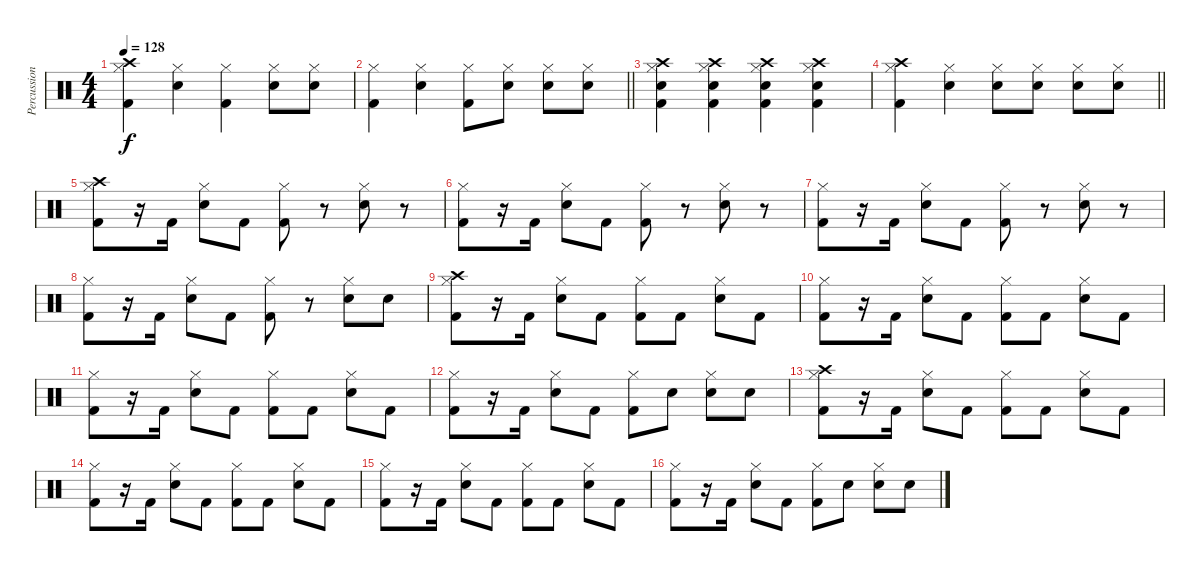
\track ("Percussion" "Percussion") {instrument percussion}
\staff {score}
\articulation defaults
\ts (4 4)
\tempo 128
\clef neutral
\ks c
("Crash high (hit)" "Hi-Hat (closed)" "Kick (hit) 2").4{dy f} ("Hi-Hat (closed)" "Snare (hit) 2").4 ("Hi-Hat (closed)" "Kick (hit) 2").4 ("Hi-Hat (closed)" "Snare (hit) 2").8 ("Hi-Hat (closed)" "Snare (hit) 2").8 |
\barLineRight lightlight
("Hi-Hat (closed)" "Kick (hit) 2").4 ("Hi-Hat (closed)" "Snare (hit) 2").4 ("Hi-Hat (closed)" "Kick (hit) 2").8 ("Hi-Hat (closed)" "Snare (hit) 2").8 ("Hi-Hat (closed)" "Snare (hit) 2").8 ("Hi-Hat (closed)" "Snare (hit) 2").8 |
("Crash high (hit)" "Hi-Hat (closed)" "Kick (hit) 2" "Snare (hit) 2").4 ("Crash high (hit)" "Hi-Hat (closed)" "Kick (hit) 2" "Snare (hit) 2").4 ("Crash high (hit)" "Hi-Hat (closed)" "Kick (hit) 2" "Snare (hit) 2").4 ("Crash high (hit)" "Hi-Hat (closed)" "Kick (hit) 2" "Snare (hit) 2").4 |
\barLineRight lightlight
("Crash high (hit)" "Hi-Hat (closed)" "Kick (hit) 2").4 ("Hi-Hat (closed)" "Snare (hit) 2").4 ("Hi-Hat (closed)" "Snare (hit) 2").8 ("Hi-Hat (closed)" "Snare (hit) 2").8 ("Hi-Hat (closed)" "Snare (hit) 2").8 ("Hi-Hat (closed)" "Snare (hit) 2").8 |
("Crash high (hit)" "Hi-Hat (closed)" "Kick (hit) 2").8 r.16 "Kick (hit) 2".16 ("Hi-Hat (closed)" "Snare (hit) 2").8 "Kick (hit) 2".8 ("Hi-Hat (closed)" "Kick (hit) 2").8 r.8 ("Hi-Hat (closed)" "Snare (hit) 2").8 r.8 |
("Hi-Hat (closed)" "Kick (hit) 2").8 r.16 "Kick (hit) 2".16 ("Hi-Hat (closed)" "Snare (hit) 2").8 "Kick (hit) 2".8 ("Hi-Hat (closed)" "Kick (hit) 2").8 r.8 ("Hi-Hat (closed)" "Snare (hit) 2").8 r.8 |
("Hi-Hat (closed)" "Kick (hit) 2").8 r.16 "Kick (hit) 2".16 ("Hi-Hat (closed)" "Snare (hit) 2").8 "Kick (hit) 2".8 ("Hi-Hat (closed)" "Kick (hit) 2").8 r.8 ("Hi-Hat (closed)" "Snare (hit) 2").8 r.8 |
("Hi-Hat (closed)" "Kick (hit) 2").8 r.16 "Kick (hit) 2".16 ("Hi-Hat (closed)" "Snare (hit) 2").8 "Kick (hit) 2".8 ("Hi-Hat (closed)" "Kick (hit) 2").8 r.8 ("Hi-Hat (closed)" "Snare (hit) 2").8 "Snare (hit) 2".8 |
("Crash high (hit)" "Hi-Hat (closed)" "Kick (hit) 2").8 r.16 "Kick (hit) 2".16 ("Hi-Hat (closed)" "Snare (hit) 2").8 "Kick (hit) 2".8 ("Hi-Hat (closed)" "Kick (hit) 2").8 "Kick (hit) 2".8 ("Hi-Hat (closed)" "Snare (hit) 2").8 "Kick (hit) 2".8 |
("Hi-Hat (closed)" "Kick (hit) 2").8 r.16 "Kick (hit) 2".16 ("Hi-Hat (closed)" "Snare (hit) 2").8 "Kick (hit) 2".8 ("Hi-Hat (closed)" "Kick (hit) 2").8 "Kick (hit) 2".8 ("Hi-Hat (closed)" "Snare (hit) 2").8 "Kick (hit) 2".8 |
("Hi-Hat (closed)" "Kick (hit) 2").8 r.16 "Kick (hit) 2".16 ("Hi-Hat (closed)" "Snare (hit) 2").8 "Kick (hit) 2".8 ("Hi-Hat (closed)" "Kick (hit) 2").8 "Kick (hit) 2".8 ("Hi-Hat (closed)" "Snare (hit) 2").8 "Kick (hit) 2".8 |
("Hi-Hat (closed)" "Kick (hit) 2").8 r.16 "Kick (hit) 2".16 ("Hi-Hat (closed)" "Snare (hit) 2").8 "Kick (hit) 2".8 ("Hi-Hat (closed)" "Kick (hit) 2").8 "Snare (hit) 2".8 ("Hi-Hat (closed)" "Snare (hit) 2").8 "Snare (hit) 2".8 |
("Crash high (hit)" "Hi-Hat (closed)" "Kick (hit) 2").8 r.16 "Kick (hit) 2".16 ("Hi-Hat (closed)" "Snare (hit) 2").8 "Kick (hit) 2".8 ("Hi-Hat (closed)" "Kick (hit) 2").8 "Kick (hit) 2".8 ("Hi-Hat (closed)" "Snare (hit) 2").8 "Kick (hit) 2".8 |
("Hi-Hat (closed)" "Kick (hit) 2").8 r.16 "Kick (hit) 2".16 ("Hi-Hat (closed)" "Snare (hit) 2").8 "Kick (hit) 2".8 ("Hi-Hat (closed)" "Kick (hit) 2").8 "Kick (hit) 2".8 ("Hi-Hat (closed)" "Snare (hit) 2").8 "Kick (hit) 2".8 |
("Hi-Hat (closed)" "Kick (hit) 2").8 r.16 "Kick (hit) 2".16 ("Hi-Hat (closed)" "Snare (hit) 2").8 "Kick (hit) 2".8 ("Hi-Hat (closed)" "Kick (hit) 2").8 "Kick (hit) 2".8 ("Hi-Hat (closed)" "Snare (hit) 2").8 "Kick (hit) 2".8 |
("Hi-Hat (closed)" "Kick (hit) 2").8 r.16 "Kick (hit) 2".16 ("Hi-Hat (closed)" "Snare (hit) 2").8 "Kick (hit) 2".8 ("Hi-Hat (closed)" "Kick (hit) 2").8 "Snare (hit) 2".8 ("Hi-Hat (closed)" "Snare (hit) 2").8 "Snare (hit) 2".8
